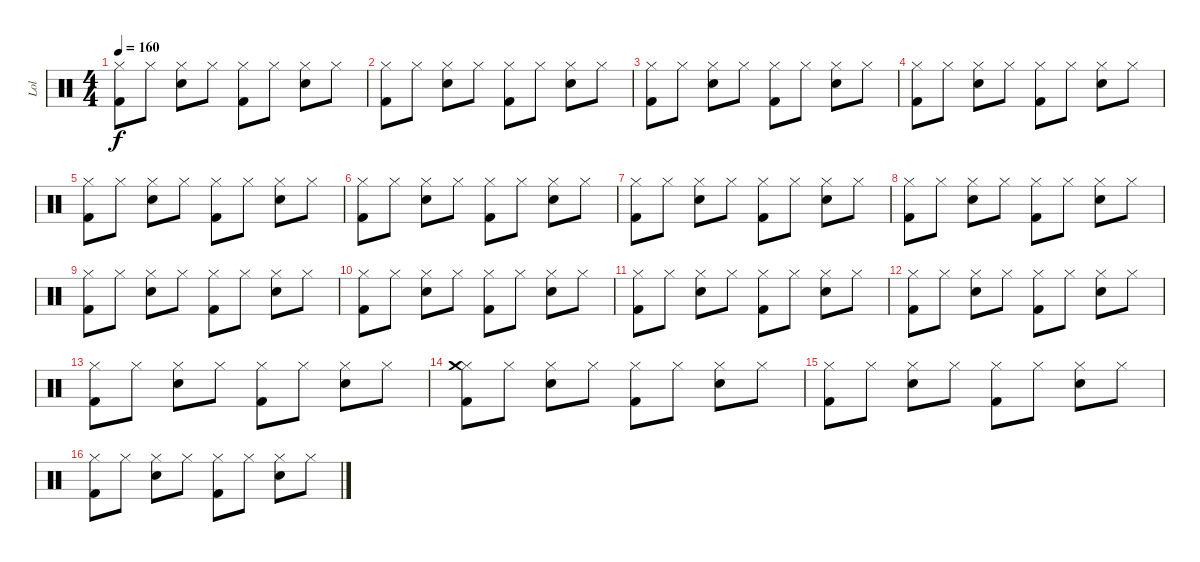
\track ("Lol" "Lol") {instrument percussion}
\staff {score}
\articulation defaults
\ts (4 4)
\tempo 160
\clef neutral
\ks c
("Kick (hit) 2" "Hi-Hat (closed)").8{dy f} "Hi-Hat (closed)".8 ("Snare (hit) 2" "Hi-Hat (closed)").8 "Hi-Hat (closed)".8 ("Kick (hit) 2" "Hi-Hat (closed)").8 "Hi-Hat (closed)".8 ("Snare (hit) 2" "Hi-Hat (closed)").8 "Hi-Hat (closed)".8 |
("Kick (hit) 2" "Hi-Hat (closed)").8 "Hi-Hat (closed)".8 ("Snare (hit) 2" "Hi-Hat (closed)").8 "Hi-Hat (closed)".8 ("Kick (hit) 2" "Hi-Hat (closed)").8 "Hi-Hat (closed)".8 ("Snare (hit) 2" "Hi-Hat (closed)").8 "Hi-Hat (closed)".8 |
("Kick (hit) 2" "Hi-Hat (closed)").8 "Hi-Hat (closed)".8 ("Snare (hit) 2" "Hi-Hat (closed)").8 "Hi-Hat (closed)".8 ("Kick (hit) 2" "Hi-Hat (closed)").8 "Hi-Hat (closed)".8 ("Snare (hit) 2" "Hi-Hat (closed)").8 "Hi-Hat (closed)".8 |
("Kick (hit) 2" "Hi-Hat (closed)").8 "Hi-Hat (closed)".8 ("Snare (hit) 2" "Hi-Hat (closed)").8 "Hi-Hat (closed)".8 ("Kick (hit) 2" "Hi-Hat (closed)").8 "Hi-Hat (closed)".8 ("Snare (hit) 2" "Hi-Hat (closed)").8 "Hi-Hat (closed)".8 |
("Kick (hit) 2" "Hi-Hat (closed)").8 "Hi-Hat (closed)".8 ("Snare (hit) 2" "Hi-Hat (closed)").8 "Hi-Hat (closed)".8 ("Kick (hit) 2" "Hi-Hat (closed)").8 "Hi-Hat (closed)".8 ("Snare (hit) 2" "Hi-Hat (closed)").8 "Hi-Hat (closed)".8 |
("Kick (hit) 2" "Hi-Hat (closed)").8 "Hi-Hat (closed)".8 ("Snare (hit) 2" "Hi-Hat (closed)").8 "Hi-Hat (closed)".8 ("Kick (hit) 2" "Hi-Hat (closed)").8 "Hi-Hat (closed)".8 ("Snare (hit) 2" "Hi-Hat (closed)").8 "Hi-Hat (closed)".8 |
("Kick (hit) 2" "Hi-Hat (closed)").8 "Hi-Hat (closed)".8 ("Snare (hit) 2" "Hi-Hat (closed)").8 "Hi-Hat (closed)".8 ("Kick (hit) 2" "Hi-Hat (closed)").8 "Hi-Hat (closed)".8 ("Snare (hit) 2" "Hi-Hat (closed)").8 "Hi-Hat (closed)".8 |
("Kick (hit) 2" "Hi-Hat (closed)").8 "Hi-Hat (closed)".8 ("Snare (hit) 2" "Hi-Hat (closed)").8 "Hi-Hat (closed)".8 ("Kick (hit) 2" "Hi-Hat (closed)").8 "Hi-Hat (closed)".8 ("Snare (hit) 2" "Hi-Hat (closed)").8 "Hi-Hat (closed)".8 |
("Kick (hit) 2" "Hi-Hat (closed)").8 "Hi-Hat (closed)".8 ("Snare (hit) 2" "Hi-Hat (closed)").8 "Hi-Hat (closed)".8 ("Kick (hit) 2" "Hi-Hat (closed)").8 "Hi-Hat (closed)".8 ("Snare (hit) 2" "Hi-Hat (closed)").8 "Hi-Hat (closed)".8 |
("Kick (hit) 2" "Hi-Hat (closed)").8 "Hi-Hat (closed)".8 ("Snare (hit) 2" "Hi-Hat (closed)").8 "Hi-Hat (closed)".8 ("Kick (hit) 2" "Hi-Hat (closed)").8 "Hi-Hat (closed)".8 ("Snare (hit) 2" "Hi-Hat (closed)").8 "Hi-Hat (closed)".8 |
("Kick (hit) 2" "Hi-Hat (closed)").8 "Hi-Hat (closed)".8 ("Snare (hit) 2" "Hi-Hat (closed)").8 "Hi-Hat (closed)".8 ("Kick (hit) 2" "Hi-Hat (closed)").8 "Hi-Hat (closed)".8 ("Snare (hit) 2" "Hi-Hat (closed)").8 "Hi-Hat (closed)".8 |
("Kick (hit) 2" "Hi-Hat (closed)").8 "Hi-Hat (closed)".8 ("Snare (hit) 2" "Hi-Hat (closed)").8 "Hi-Hat (closed)".8 ("Kick (hit) 2" "Hi-Hat (closed)").8 "Hi-Hat (closed)".8 ("Snare (hit) 2" "Hi-Hat (closed)").8 "Hi-Hat (closed)".8 |
("Kick (hit) 2" "Hi-Hat (closed)").8 "Hi-Hat (closed)".8 ("Snare (hit) 2" "Hi-Hat (closed)").8 "Hi-Hat (closed)".8 ("Kick (hit) 2" "Hi-Hat (closed)").8 "Hi-Hat (closed)".8 ("Snare (hit) 2" "Hi-Hat (closed)").8 "Hi-Hat (closed)".8 |
("Kick (hit) 2" "Hi-Hat (closed)" "Crash medium (hit)").8 "Hi-Hat (closed)".8 ("Snare (hit) 2" "Hi-Hat (closed)").8 "Hi-Hat (closed)".8 ("Kick (hit) 2" "Hi-Hat (closed)").8 "Hi-Hat (closed)".8 ("Snare (hit) 2" "Hi-Hat (closed)").8 "Hi-Hat (closed)".8 |
("Kick (hit) 2" "Hi-Hat (closed)").8 "Hi-Hat (closed)".8 ("Snare (hit) 2" "Hi-Hat (closed)").8 "Hi-Hat (closed)".8 ("Kick (hit) 2" "Hi-Hat (closed)").8 "Hi-Hat (closed)".8 ("Snare (hit) 2" "Hi-Hat (closed)").8 "Hi-Hat (closed)".8 |
("Kick (hit) 2" "Hi-Hat (closed)").8 "Hi-Hat (closed)".8 ("Snare (hit) 2" "Hi-Hat (closed)").8 "Hi-Hat (closed)".8 ("Kick (hit) 2" "Hi-Hat (closed)").8 "Hi-Hat (closed)".8 ("Snare (hit) 2" "Hi-Hat (closed)").8 "Hi-Hat (closed)".8
